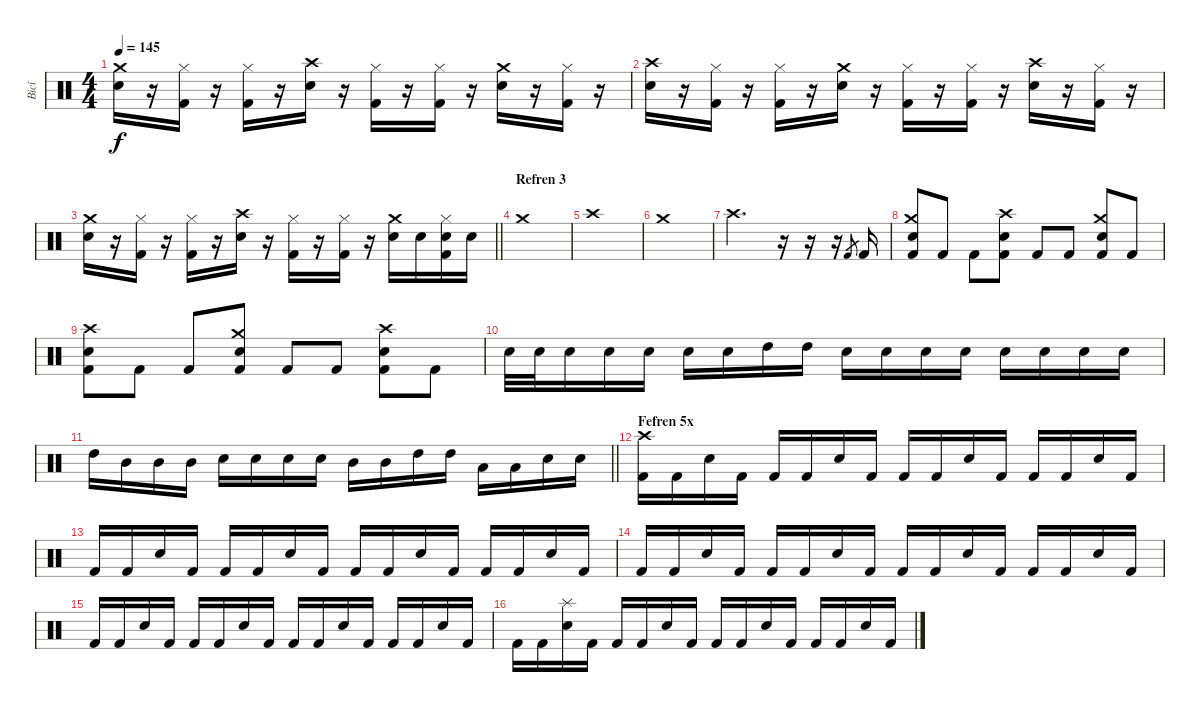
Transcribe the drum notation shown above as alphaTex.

\track ("Bicí" "Bicí") {instrument percussion}
\staff {score}
\articulation defaults
\ts (4 4)
\tempo 145
\clef neutral
\ks c
("Electric Snare (hit)" "Crash medium (hit)").16{dy f} r.16 ("Hi-Hat (closed)" "Kick (hit) 2").16 r.16 ("Hi-Hat (closed)" "Kick (hit) 2").16 r.16 ("Electric Snare (hit)" "Crash high (hit)").16 r.16 ("Hi-Hat (closed)" "Kick (hit) 2").16 r.16 ("Hi-Hat (closed)" "Kick (hit) 2").16 r.16 ("Electric Snare (hit)" "Crash medium (hit)").16 r.16 ("Hi-Hat (closed)" "Kick (hit) 2").16 r.16 |
("Electric Snare (hit)" "Crash high (hit)").16 r.16 ("Hi-Hat (closed)" "Kick (hit) 2").16 r.16 ("Hi-Hat (closed)" "Kick (hit) 2").16 r.16 ("Electric Snare (hit)" "Crash medium (hit)").16 r.16 ("Hi-Hat (closed)" "Kick (hit) 2").16 r.16 ("Hi-Hat (closed)" "Kick (hit) 2").16 r.16 ("Electric Snare (hit)" "Crash high (hit)").16 r.16 ("Hi-Hat (closed)" "Kick (hit) 2").16 r.16 |
\barLineRight lightlight
("Electric Snare (hit)" "Crash medium (hit)").16 r.16 ("Hi-Hat (closed)" "Kick (hit) 2").16 r.16 ("Hi-Hat (closed)" "Kick (hit) 2").16 r.16 ("Electric Snare (hit)" "Crash high (hit)").16 r.16 ("Hi-Hat (closed)" "Kick (hit) 2").16 r.16 ("Hi-Hat (closed)" "Kick (hit) 2").16 r.16 ("Electric Snare (hit)" "Crash medium (hit)").16 "Electric Snare (hit)".16 ("Electric Snare (hit)" "Hi-Hat (closed)" "Kick (hit) 2").16 "Electric Snare (hit)".16 |
\section ("" "Refren 3")
"Crash medium (hit)".1 |
"Crash high (hit)".1 |
"Crash medium (hit)".1 |
"Crash high (hit)".2{d} r.16 r.16 r.16 "Kick (hit) 2".8{gr} "Kick (hit) 2".16 |
("Crash medium (hit)" "Electric Snare (hit)" "Kick (hit) 2").8 "Kick (hit) 2".8 "Kick (hit) 2".8 ("Crash high (hit)" "Electric Snare (hit)" "Kick (hit) 2").8 "Kick (hit) 2".8 "Kick (hit) 2".8 ("Crash medium (hit)" "Electric Snare (hit)" "Kick (hit) 2").8 "Kick (hit) 2".8 |
("Crash high (hit)" "Electric Snare (hit)" "Kick (hit) 2").8 "Kick (hit) 2".8 "Kick (hit) 2".8 ("Crash medium (hit)" "Electric Snare (hit)" "Kick (hit) 2").8 "Kick (hit) 2".8 "Kick (hit) 2".8 ("Crash high (hit)" "Electric Snare (hit)" "Kick (hit) 2").8 "Kick (hit) 2".8 |
"Electric Snare (hit)".32 "Electric Snare (hit)".32 "Electric Snare (hit)".16 "Electric Snare (hit)".16 "Electric Snare (hit)".16 "Electric Snare (hit)".16 "Electric Snare (hit)".16 "High Tom (hit)".16 "High Tom (hit)".16 "Electric Snare (hit)".16 "Electric Snare (hit)".16 "Electric Snare (hit)".16 "Electric Snare (hit)".16 "Electric Snare (hit)".16 "Electric Snare (hit)".16 "Electric Snare (hit)".16 "Electric Snare (hit)".16 |
\barLineRight lightlight "High Tom (hit)".16 "Mid Tom (hit)".16 "Mid Tom (hit)".16 "Mid Tom (hit)".16 "Electric Snare (hit)".16 "Electric Snare (hit)".16 "Electric Snare (hit)".16 "Electric Snare (hit)".16 "Mid Tom (hit)".16 "Mid Tom (hit)".16 "High Tom (hit)".16 "High Tom (hit)".16 "Low Tom (hit)".16 "Low Tom (hit)".16 "Electric Snare (hit)".16 "Electric Snare (hit)".16
|
\section ("" "Fefren 5x")
("Kick (hit) 2" "Crash high (hit)").16 "Kick (hit) 2".16 "Electric Snare (hit)".16 "Kick (hit) 2".16 "Kick (hit) 2".16 "Kick (hit) 2".16 "Electric Snare (hit)".16 "Kick (hit) 2".16 "Kick (hit) 2".16 "Kick (hit) 2".16 "Electric Snare (hit)".16 "Kick (hit) 2".16 "Kick (hit) 2".16 "Kick (hit) 2".16 "Electric Snare (hit)".16 "Kick (hit) 2".16 |
"Kick (hit) 2".16 "Kick (hit) 2".16 "Electric Snare (hit)".16 "Kick (hit) 2".16 "Kick (hit) 2".16 "Kick (hit) 2".16 "Electric Snare (hit)".16 "Kick (hit) 2".16 "Kick (hit) 2".16 "Kick (hit) 2".16 "Electric Snare (hit)".16 "Kick (hit) 2".16 "Kick (hit) 2".16 "Kick (hit) 2".16 "Electric Snare (hit)".16 "Kick (hit) 2".16 |
"Kick (hit) 2".16 "Kick (hit) 2".16 "Electric Snare (hit)".16 "Kick (hit) 2".16 "Kick (hit) 2".16 "Kick (hit) 2".16 "Electric Snare (hit)".16 "Kick (hit) 2".16 "Kick (hit) 2".16 "Kick (hit) 2".16 "Electric Snare (hit)".16 "Kick (hit) 2".16 "Kick (hit) 2".16 "Kick (hit) 2".16 "Electric Snare (hit)".16 "Kick (hit) 2".16 |
"Kick (hit) 2".16 "Kick (hit) 2".16 "Electric Snare (hit)".16 "Kick (hit) 2".16 "Kick (hit) 2".16 "Kick (hit) 2".16 "Electric Snare (hit)".16 "Kick (hit) 2".16 "Kick (hit) 2".16 "Kick (hit) 2".16 "Electric Snare (hit)".16 "Kick (hit) 2".16 "Kick (hit) 2".16 "Kick (hit) 2".16 "Electric Snare (hit)".16 "Kick (hit) 2".16 |
"Kick (hit) 2".16 "Kick (hit) 2".16 ("Electric Snare (hit)" "Splash (hit)").16 "Kick (hit) 2".16 "Kick (hit) 2".16 "Kick (hit) 2".16 "Electric Snare (hit)".16 "Kick (hit) 2".16 "Kick (hit) 2".16 "Kick (hit) 2".16 "Electric Snare (hit)".16 "Kick (hit) 2".16 "Kick (hit) 2".16 "Kick (hit) 2".16 "Electric Snare (hit)".16 "Kick (hit) 2".16
